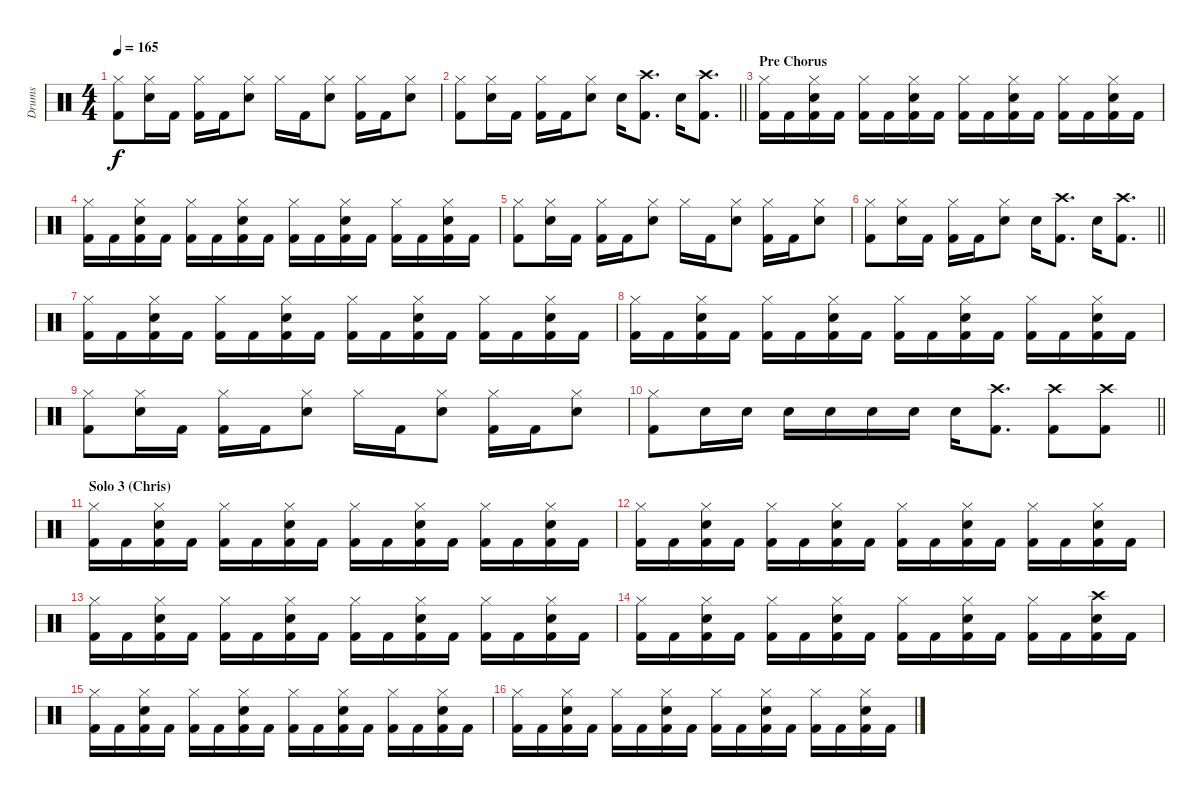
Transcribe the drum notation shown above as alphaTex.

\track ("Drums" "Drums") {instrument percussion}
\staff {score}
\articulation defaults
\ts (4 4)
\tempo 165
\clef neutral
\ks c
("Hi-Hat (closed)" "Kick (hit) 2").8{dy f} ("Hi-Hat (closed)" "Snare (hit) 2").16 "Kick (hit) 2".16 ("Hi-Hat (closed)" "Kick (hit) 2").16 "Kick (hit) 2".16 ("Hi-Hat (closed)" "Snare (hit) 2").8 "Hi-Hat (closed)".16 "Kick (hit) 2".16 ("Hi-Hat (closed)" "Snare (hit) 2").8 ("Hi-Hat (closed)" "Kick (hit) 2").16 "Kick (hit) 2".16 ("Hi-Hat (closed)" "Snare (hit) 2").8 |
\barLineRight lightlight
("Hi-Hat (closed)" "Kick (hit) 2").8 ("Hi-Hat (closed)" "Snare (hit) 2").16 "Kick (hit) 2".16 ("Hi-Hat (closed)" "Kick (hit) 2").16 "Kick (hit) 2".16 ("Hi-Hat (closed)" "Snare (hit) 2").8 "Snare (hit) 2".16 ("Crash high (hit)" "Kick (hit) 2").8{d} "Snare (hit) 2".16 ("Crash high (hit)" "Kick (hit) 2").8{d} |
\section ("" "Pre Chorus")
("Hi-Hat (closed)" "Kick (hit) 2").16 "Kick (hit) 2".16 ("Hi-Hat (closed)" "Snare (hit) 2" "Kick (hit) 2").16 "Kick (hit) 2".16 ("Hi-Hat (closed)" "Kick (hit) 2").16 "Kick (hit) 2".16 ("Hi-Hat (closed)" "Snare (hit) 2" "Kick (hit) 2").16 "Kick (hit) 2".16 ("Hi-Hat (closed)" "Kick (hit) 2").16 "Kick (hit) 2".16 ("Hi-Hat (closed)" "Snare (hit) 2" "Kick (hit) 2").16 "Kick (hit) 2".16 ("Hi-Hat (closed)" "Kick (hit) 2").16 "Kick (hit) 2".16 ("Hi-Hat (closed)" "Snare (hit) 2" "Kick (hit) 2").16 "Kick (hit) 2".16 |
("Hi-Hat (closed)" "Kick (hit) 2").16 "Kick (hit) 2".16 ("Hi-Hat (closed)" "Snare (hit) 2" "Kick (hit) 2").16 "Kick (hit) 2".16 ("Hi-Hat (closed)" "Kick (hit) 2").16 "Kick (hit) 2".16 ("Hi-Hat (closed)" "Snare (hit) 2" "Kick (hit) 2").16 "Kick (hit) 2".16 ("Hi-Hat (closed)" "Kick (hit) 2").16 "Kick (hit) 2".16 ("Hi-Hat (closed)" "Snare (hit) 2" "Kick (hit) 2").16 "Kick (hit) 2".16 ("Hi-Hat (closed)" "Kick (hit) 2").16 "Kick (hit) 2".16 ("Hi-Hat (closed)" "Snare (hit) 2" "Kick (hit) 2").16 "Kick (hit) 2".16 |
("Hi-Hat (closed)" "Kick (hit) 2").8 ("Hi-Hat (closed)" "Snare (hit) 2").16 "Kick (hit) 2".16 ("Hi-Hat (closed)" "Kick (hit) 2").16 "Kick (hit) 2".16 ("Hi-Hat (closed)" "Snare (hit) 2").8 "Hi-Hat (closed)".16 "Kick (hit) 2".16 ("Hi-Hat (closed)" "Snare (hit) 2").8 ("Hi-Hat (closed)" "Kick (hit) 2").16 "Kick (hit) 2".16 ("Hi-Hat (closed)" "Snare (hit) 2").8 |
\barLineRight lightlight
("Hi-Hat (closed)" "Kick (hit) 2").8 ("Hi-Hat (closed)" "Snare (hit) 2").16 "Kick (hit) 2".16 ("Hi-Hat (closed)" "Kick (hit) 2").16 "Kick (hit) 2".16 ("Hi-Hat (closed)" "Snare (hit) 2").8 "Snare (hit) 2".16 ("Crash high (hit)" "Kick (hit) 2").8{d} "Snare (hit) 2".16 ("Crash high (hit)" "Kick (hit) 2").8{d} |
("Hi-Hat (closed)" "Kick (hit) 2").16 "Kick (hit) 2".16 ("Hi-Hat (closed)" "Snare (hit) 2" "Kick (hit) 2").16 "Kick (hit) 2".16 ("Hi-Hat (closed)" "Kick (hit) 2").16 "Kick (hit) 2".16 ("Hi-Hat (closed)" "Snare (hit) 2" "Kick (hit) 2").16 "Kick (hit) 2".16 ("Hi-Hat (closed)" "Kick (hit) 2").16 "Kick (hit) 2".16 ("Hi-Hat (closed)" "Snare (hit) 2" "Kick (hit) 2").16 "Kick (hit) 2".16 ("Hi-Hat (closed)" "Kick (hit) 2").16 "Kick (hit) 2".16 ("Hi-Hat (closed)" "Snare (hit) 2" "Kick (hit) 2").16 "Kick (hit) 2".16 |
("Hi-Hat (closed)" "Kick (hit) 2").16 "Kick (hit) 2".16 ("Hi-Hat (closed)" "Snare (hit) 2" "Kick (hit) 2").16 "Kick (hit) 2".16 ("Hi-Hat (closed)" "Kick (hit) 2").16 "Kick (hit) 2".16 ("Hi-Hat (closed)" "Snare (hit) 2" "Kick (hit) 2").16 "Kick (hit) 2".16 ("Hi-Hat (closed)" "Kick (hit) 2").16 "Kick (hit) 2".16 ("Hi-Hat (closed)" "Snare (hit) 2" "Kick (hit) 2").16 "Kick (hit) 2".16 ("Hi-Hat (closed)" "Kick (hit) 2").16 "Kick (hit) 2".16 ("Hi-Hat (closed)" "Snare (hit) 2" "Kick (hit) 2").16 "Kick (hit) 2".16 |
("Hi-Hat (closed)" "Kick (hit) 2").8 ("Hi-Hat (closed)" "Snare (hit) 2").16 "Kick (hit) 2".16 ("Hi-Hat (closed)" "Kick (hit) 2").16 "Kick (hit) 2".16 ("Hi-Hat (closed)" "Snare (hit) 2").8 "Hi-Hat (closed)".16 "Kick (hit) 2".16 ("Hi-Hat (closed)" "Snare (hit) 2").8 ("Hi-Hat (closed)" "Kick (hit) 2").16 "Kick (hit) 2".16 ("Hi-Hat (closed)" "Snare (hit) 2").8 |
\barLineRight lightlight
("Hi-Hat (closed)" "Kick (hit) 2").8 "Snare (hit) 2".16 "Snare (hit) 2".16 "Snare (hit) 2".16 "Snare (hit) 2".16 "Snare (hit) 2".16 "Snare (hit) 2".16 "Snare (hit) 2".16 ("Crash high (hit)" "Kick (hit) 2").8{d} ("Crash high (hit)" "Kick (hit) 2").8 ("Crash high (hit)" "Kick (hit) 2").8 |
\section ("" "Solo 3 (Chris)")
("Hi-Hat (closed)" "Kick (hit) 2").16 "Kick (hit) 2".16 ("Hi-Hat (closed)" "Snare (hit) 2" "Kick (hit) 2").16 "Kick (hit) 2".16 ("Hi-Hat (closed)" "Kick (hit) 2").16 "Kick (hit) 2".16 ("Hi-Hat (closed)" "Snare (hit) 2" "Kick (hit) 2").16 "Kick (hit) 2".16 ("Hi-Hat (closed)" "Kick (hit) 2").16 "Kick (hit) 2".16 ("Hi-Hat (closed)" "Snare (hit) 2" "Kick (hit) 2").16 "Kick (hit) 2".16 ("Hi-Hat (closed)" "Kick (hit) 2").16 "Kick (hit) 2".16 ("Hi-Hat (closed)" "Snare (hit) 2" "Kick (hit) 2").16 "Kick (hit) 2".16 |
("Hi-Hat (closed)" "Kick (hit) 2").16 "Kick (hit) 2".16 ("Hi-Hat (closed)" "Snare (hit) 2" "Kick (hit) 2").16 "Kick (hit) 2".16 ("Hi-Hat (closed)" "Kick (hit) 2").16 "Kick (hit) 2".16 ("Hi-Hat (closed)" "Snare (hit) 2" "Kick (hit) 2").16 "Kick (hit) 2".16 ("Hi-Hat (closed)" "Kick (hit) 2").16 "Kick (hit) 2".16 ("Hi-Hat (closed)" "Snare (hit) 2" "Kick (hit) 2").16 "Kick (hit) 2".16 ("Hi-Hat (closed)" "Kick (hit) 2").16 "Kick (hit) 2".16 ("Hi-Hat (closed)" "Snare (hit) 2" "Kick (hit) 2").16 "Kick (hit) 2".16 |
("Hi-Hat (closed)" "Kick (hit) 2").16 "Kick (hit) 2".16 ("Hi-Hat (closed)" "Snare (hit) 2" "Kick (hit) 2").16 "Kick (hit) 2".16 ("Hi-Hat (closed)" "Kick (hit) 2").16 "Kick (hit) 2".16 ("Hi-Hat (closed)" "Snare (hit) 2" "Kick (hit) 2").16 "Kick (hit) 2".16 ("Hi-Hat (closed)" "Kick (hit) 2").16 "Kick (hit) 2".16 ("Hi-Hat (closed)" "Snare (hit) 2" "Kick (hit) 2").16 "Kick (hit) 2".16 ("Hi-Hat (closed)" "Kick (hit) 2").16 "Kick (hit) 2".16 ("Hi-Hat (closed)" "Snare (hit) 2" "Kick (hit) 2").16 "Kick (hit) 2".16 |
("Hi-Hat (closed)" "Kick (hit) 2").16 "Kick (hit) 2".16 ("Hi-Hat (closed)" "Snare (hit) 2" "Kick (hit) 2").16 "Kick (hit) 2".16 ("Hi-Hat (closed)" "Kick (hit) 2").16 "Kick (hit) 2".16 ("Hi-Hat (closed)" "Snare (hit) 2" "Kick (hit) 2").16 "Kick (hit) 2".16 ("Hi-Hat (closed)" "Kick (hit) 2").16 "Kick (hit) 2".16 ("Hi-Hat (closed)" "Snare (hit) 2" "Kick (hit) 2").16 "Kick (hit) 2".16 ("Hi-Hat (closed)" "Kick (hit) 2").16 "Kick (hit) 2".16 ("Crash high (hit)" "Snare (hit) 2" "Kick (hit) 2").16 "Kick (hit) 2".16 |
("Hi-Hat (closed)" "Kick (hit) 2").16 "Kick (hit) 2".16 ("Hi-Hat (closed)" "Snare (hit) 2" "Kick (hit) 2").16 "Kick (hit) 2".16 ("Hi-Hat (closed)" "Kick (hit) 2").16 "Kick (hit) 2".16 ("Hi-Hat (closed)" "Snare (hit) 2" "Kick (hit) 2").16 "Kick (hit) 2".16 ("Hi-Hat (closed)" "Kick (hit) 2").16 "Kick (hit) 2".16 ("Hi-Hat (closed)" "Snare (hit) 2" "Kick (hit) 2").16 "Kick (hit) 2".16 ("Hi-Hat (closed)" "Kick (hit) 2").16 "Kick (hit) 2".16 ("Hi-Hat (closed)" "Snare (hit) 2" "Kick (hit) 2").16 "Kick (hit) 2".16 |
("Hi-Hat (closed)" "Kick (hit) 2").16 "Kick (hit) 2".16 ("Hi-Hat (closed)" "Snare (hit) 2" "Kick (hit) 2").16 "Kick (hit) 2".16 ("Hi-Hat (closed)" "Kick (hit) 2").16 "Kick (hit) 2".16 ("Hi-Hat (closed)" "Snare (hit) 2" "Kick (hit) 2").16 "Kick (hit) 2".16 ("Hi-Hat (closed)" "Kick (hit) 2").16 "Kick (hit) 2".16 ("Hi-Hat (closed)" "Snare (hit) 2" "Kick (hit) 2").16 "Kick (hit) 2".16 ("Hi-Hat (closed)" "Kick (hit) 2").16 "Kick (hit) 2".16 ("Hi-Hat (closed)" "Snare (hit) 2" "Kick (hit) 2").16 "Kick (hit) 2".16
